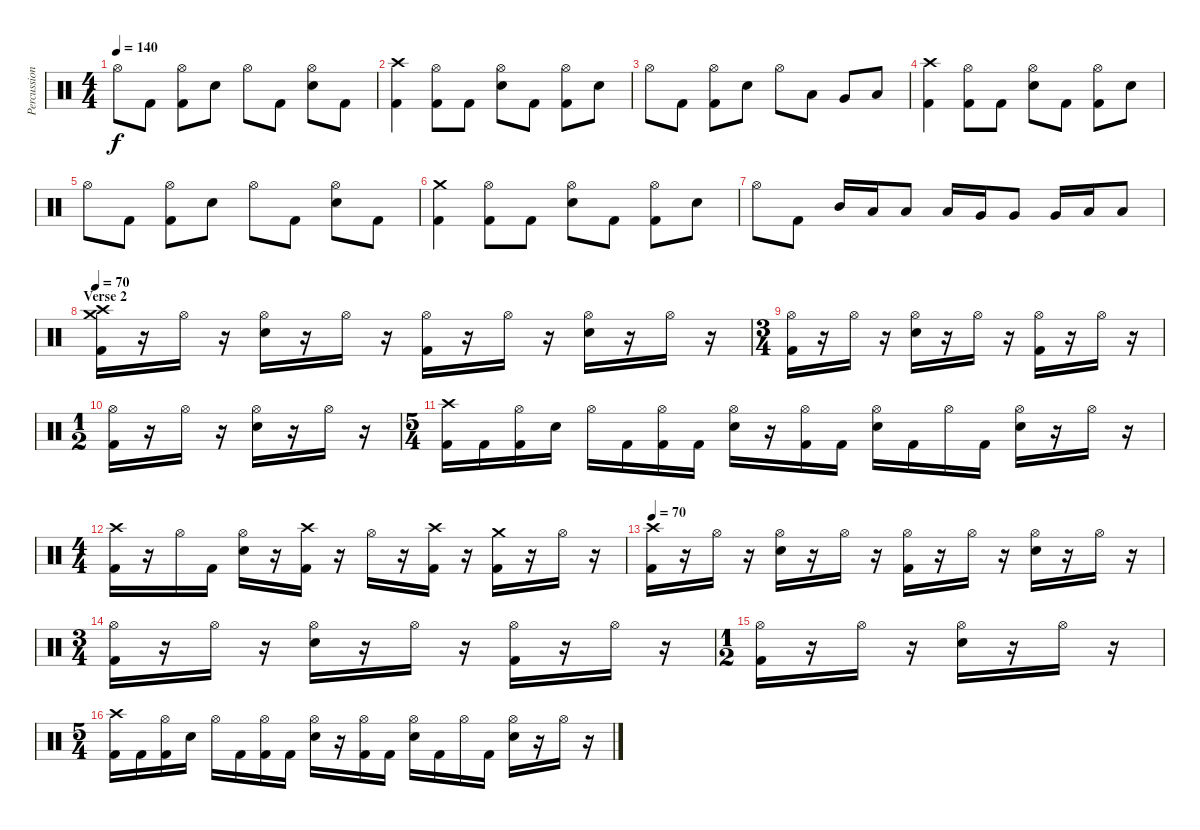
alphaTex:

\track ("Percussion" "Percussion") {instrument percussion}
\staff {score}
\articulation defaults
\ts (4 4)
\tempo 140
\clef neutral
\ks c "Hi-Hat (open)".8{dy f} "Kick (hit) 2".8
("Hi-Hat (open)" "Kick (hit) 2").8 "Electric Snare (hit)".8 "Hi-Hat (open)".8 "Kick (hit) 2".8 ("Hi-Hat (open)" "Electric Snare (hit)").8 "Kick (hit) 2".8 |
("Crash high (hit)" "Kick (hit) 2").4 ("Hi-Hat (open)" "Kick (hit) 2").8 "Kick (hit) 2".8 ("Hi-Hat (open)" "Electric Snare (hit)").8 "Kick (hit) 2".8 ("Hi-Hat (open)" "Kick (hit) 2").8 "Electric Snare (hit)".8 |
"Hi-Hat (open)".8 "Kick (hit) 2".8 ("Hi-Hat (open)" "Kick (hit) 2").8 "Electric Snare (hit)".8 "Hi-Hat (open)".8 "Low Tom (hit)".8 "Very Low Tom (hit)".8 "Low Floor Tom (hit)".8 |
("Crash high (hit)" "Kick (hit) 2").4 ("Hi-Hat (open)" "Kick (hit) 2").8 "Kick (hit) 2".8 ("Hi-Hat (open)" "Electric Snare (hit)").8 "Kick (hit) 2".8 ("Hi-Hat (open)" "Kick (hit) 2").8 "Electric Snare (hit)".8 |
"Hi-Hat (open)".8 "Kick (hit) 2".8 ("Hi-Hat (open)" "Kick (hit) 2").8 "Electric Snare (hit)".8 "Hi-Hat (open)".8 "Kick (hit) 2".8 ("Hi-Hat (open)" "Electric Snare (hit)").8 "Kick (hit) 2".8 |
("Crash medium (hit)" "Kick (hit) 2").4 ("Hi-Hat (open)" "Kick (hit) 2").8 "Kick (hit) 2".8 ("Hi-Hat (open)" "Electric Snare (hit)").8 "Kick (hit) 2".8 ("Hi-Hat (open)" "Kick (hit) 2").8 "Electric Snare (hit)".8 |
"Hi-Hat (open)".8 "Kick (hit) 2".8 "Mid Tom (hit)".16 "Low Tom (hit)".16 "Low Tom (hit)".8 "Low Tom (hit)".16 "Very Low Tom (hit)".16 "Very Low Tom (hit)".8 "Very Low Tom (hit)".16 "Low Floor Tom (hit)".16 "Low Floor Tom (hit)".8 |
\section ("" "Verse 2")
\tempo 70
("Crash high (hit)" "Crash medium (hit)" "Kick (hit) 2").16 r.16 "Hi-Hat (open)".16 r.16 ("Hi-Hat (open)" "Electric Snare (hit)").16 r.16 "Hi-Hat (open)".16 r.16 ("Hi-Hat (open)" "Kick (hit) 2").16 r.16 "Hi-Hat (open)".16 r.16 ("Hi-Hat (open)" "Electric Snare (hit)").16 r.16 "Hi-Hat (open)".16 r.16 |
\ts (3 4)
("Hi-Hat (open)" "Kick (hit) 2").16 r.16 "Hi-Hat (open)".16 r.16 ("Hi-Hat (open)" "Electric Snare (hit)").16 r.16 "Hi-Hat (open)".16 r.16 ("Hi-Hat (open)" "Kick (hit) 2").16 r.16 "Hi-Hat (open)".16 r.16 |
\ts (1 2)
("Hi-Hat (open)" "Kick (hit) 2").16 r.16 "Hi-Hat (open)".16 r.16 ("Hi-Hat (open)" "Electric Snare (hit)").16 r.16 "Hi-Hat (open)".16 r.16 |
\ts (5 4)
("Crash high (hit)" "Kick (hit) 2").16 "Kick (hit) 2".16 ("Hi-Hat (open)" "Kick (hit) 2").16 "Electric Snare (hit)".16 "Hi-Hat (open)".16 "Kick (hit) 2".16 ("Hi-Hat (open)" "Kick (hit) 2").16 "Kick (hit) 2".16 ("Hi-Hat (open)" "Electric Snare (hit)").16 r.16 ("Hi-Hat (open)" "Kick (hit) 2").16 "Kick (hit) 2".16 ("Hi-Hat (open)" "Electric Snare (hit)").16 "Kick (hit) 2".16 "Hi-Hat (open)".16 "Kick (hit) 2".16 ("Hi-Hat (open)" "Electric Snare (hit)").16 r.16 "Hi-Hat (open)".16 r.16 |
\ts (4 4)
("Crash high (hit)" "Kick (hit) 2").16 r.16 "Hi-Hat (open)".16 "Kick (hit) 2".16 ("Hi-Hat (open)" "Electric Snare (hit)").16 r.16 ("Crash high (hit)" "Kick (hit) 2").16 r.16 "Hi-Hat (open)".16 r.16 ("Crash high (hit)" "Kick (hit) 2").16 r.16 ("Crash medium (hit)" "Kick (hit) 2").16 r.16 "Hi-Hat (open)".16 r.16 |
\tempo 70
("Crash high (hit)" "Kick (hit) 2").16 r.16 "Hi-Hat (open)".16 r.16 ("Hi-Hat (open)" "Electric Snare (hit)").16 r.16 "Hi-Hat (open)".16 r.16 ("Hi-Hat (open)" "Kick (hit) 2").16 r.16 "Hi-Hat (open)".16 r.16 ("Hi-Hat (open)" "Electric Snare (hit)").16 r.16 "Hi-Hat (open)".16 r.16 |
\ts (3 4)
("Hi-Hat (open)" "Kick (hit) 2").16 r.16 "Hi-Hat (open)".16 r.16 ("Hi-Hat (open)" "Electric Snare (hit)").16 r.16 "Hi-Hat (open)".16 r.16 ("Hi-Hat (open)" "Kick (hit) 2").16 r.16 "Hi-Hat (open)".16 r.16 |
\ts (1 2)
("Hi-Hat (open)" "Kick (hit) 2").16 r.16 "Hi-Hat (open)".16 r.16 ("Hi-Hat (open)" "Electric Snare (hit)").16 r.16 "Hi-Hat (open)".16 r.16 |
\ts (5 4)
("Crash high (hit)" "Kick (hit) 2").16 "Kick (hit) 2".16 ("Hi-Hat (open)" "Kick (hit) 2").16 "Electric Snare (hit)".16 "Hi-Hat (open)".16 "Kick (hit) 2".16 ("Hi-Hat (open)" "Kick (hit) 2").16 "Kick (hit) 2".16 ("Hi-Hat (open)" "Electric Snare (hit)").16 r.16 ("Hi-Hat (open)" "Kick (hit) 2").16 "Kick (hit) 2".16 ("Hi-Hat (open)" "Electric Snare (hit)").16 "Kick (hit) 2".16 "Hi-Hat (open)".16 "Kick (hit) 2".16 ("Hi-Hat (open)" "Electric Snare (hit)").16 r.16 "Hi-Hat (open)".16 r.16
